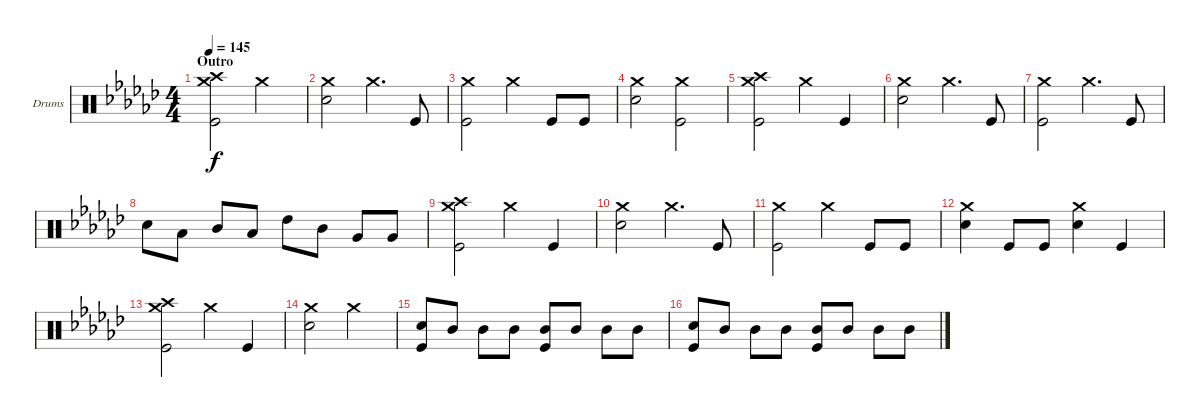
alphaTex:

\defaultSystemsLayout 4
\bracketExtendMode groupsimilarinstruments
\firstSystemTrackNameOrientation horizontal
\otherSystemsTrackNameOrientation horizontal
\track ("Drumkit" "Drums") {instrument percussion}
\staff {score}
\articulation defaults
\ts (4 4)
\section ("" "Outro")
\tempo 145
\clef neutral
\ks ebminor
("Kick (hit)" "Crash high (hit)" "Crash medium (hit)").2{dy f} "Crash medium (hit)".2 |
("Snare (hit) 2" "Crash medium (hit)").2 "Crash medium (hit)".4{d} "Kick (hit)".8 |
("Kick (hit)" "Crash medium (hit)").2 "Crash medium (hit)".4 "Kick (hit)".8 "Kick (hit)".8 |
("Snare (hit) 2" "Crash medium (hit)").2 ("Crash medium (hit)" "Kick (hit)").2 |
("Crash high (hit)" "Crash medium (hit)" "Kick (hit)").2 "Crash medium (hit)".4 "Kick (hit)".4 |
("Crash medium (hit)" "Snare (hit) 2").2 "Crash medium (hit)".4{d} "Kick (hit)".8 |
("Kick (hit)" "Crash medium (hit)").2 "Crash medium (hit)".4{d} "Kick (hit)".8 |
"Snare (hit) 2".8 "Low Tom (hit)".8 "Mid Tom (hit)".8 "Low Tom (hit)".8 "High Tom (hit)".8 "Mid Tom (hit)".8 "Very Low Tom (hit)".8 "Very Low Tom (hit)".8 |
("Kick (hit)" "Crash high (hit)" "Crash medium (hit)").2 "Crash medium (hit)".4 "Kick (hit)".4 |
("Snare (hit) 2" "Crash medium (hit)").2 "Crash medium (hit)".4{d} "Kick (hit)".8 |
("Kick (hit)" "Crash medium (hit)").2 "Crash medium (hit)".4 "Kick (hit)".8 "Kick (hit)".8 |
("Snare (hit) 2" "Crash medium (hit)").4 "Kick (hit)".8 "Kick (hit)".8 ("Snare (hit) 2" "Crash medium (hit)").4 "Kick (hit)".4 |
("Crash high (hit)" "Crash medium (hit)" "Kick (hit)").2 "Crash medium (hit)".4 "Kick (hit)".4 |
("Crash medium (hit)" "Snare (hit) 2").2 "Crash medium (hit)".2 |
("Kick (hit)" "Snare (hit) 2").8 "Mid Tom (hit)".8 "Mid Tom (hit)".8 "Mid Tom (hit)".8 ("Kick (hit)" "Mid Tom (hit)").8 "Mid Tom (hit)".8 "Mid Tom (hit)".8 "Mid Tom (hit)".8 |
("Kick (hit)" "Snare (hit) 2").8 "Mid Tom (hit)".8 "Mid Tom (hit)".8 "Mid Tom (hit)".8 ("Kick (hit)" "Mid Tom (hit)").8 "Mid Tom (hit)".8 "Mid Tom (hit)".8 "Mid Tom (hit)".8
